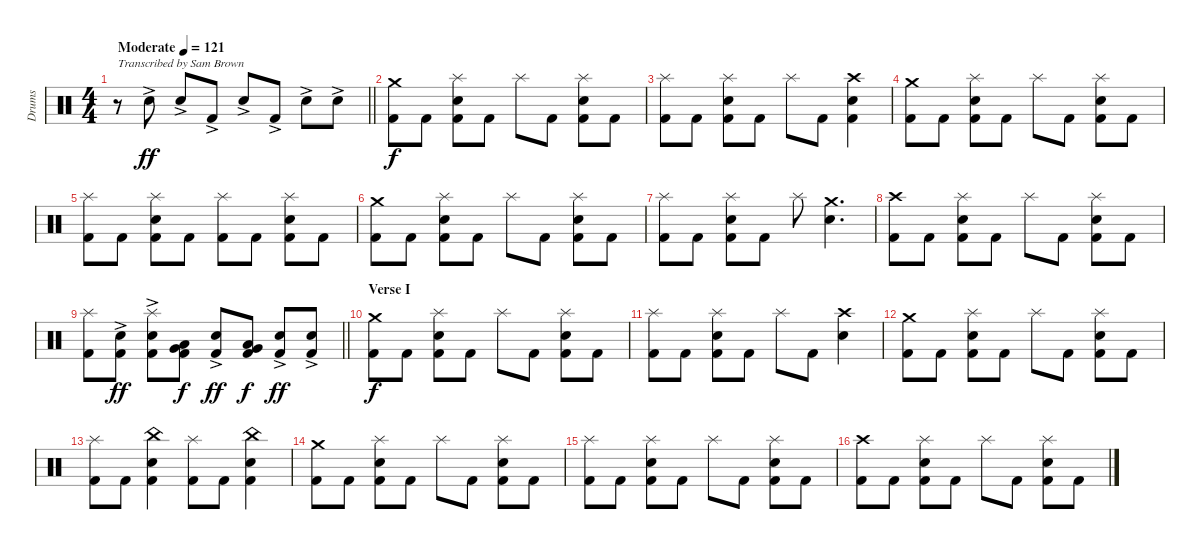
\track ("Drums" "Drums") {instrument percussion}
\staff {score}
\articulation defaults
\ts (4 4)
\tempo (121 "Moderate")
\clef neutral
\barLineRight lightlight
\ks c
r.8{txt "Transcribed by Sam Brown" dy ff} "Snare (hit) 2"{ac}.8 "Snare (hit) 2"{ac}.8 "Kick (hit) 2"{ac}.8 "Snare (hit) 2"{ac}.8 "Kick (hit) 2"{ac}.8 "Snare (hit) 2"{ac}.8 "Snare (hit) 2"{ac}.8 |
\section ("" "")
("Kick (hit) 2" "Crash medium (hit)").8{dy f} "Kick (hit) 2".8 ("Kick (hit) 2" "Snare (hit) 2" "Splash (hit)").8 "Kick (hit) 2".8 "Splash (hit)".8 "Kick (hit) 2".8 ("Kick (hit) 2" "Snare (hit) 2" "Splash (hit)").8 "Kick (hit) 2".8 |
("Kick (hit) 2" "Splash (hit)").8 "Kick (hit) 2".8 ("Kick (hit) 2" "Snare (hit) 2" "Splash (hit)").8 "Kick (hit) 2".8 "Splash (hit)".8 "Kick (hit) 2".8 ("Kick (hit) 2" "Snare (hit) 2" "Crash high (hit)").4 |
("Kick (hit) 2" "Crash medium (hit)").8 "Kick (hit) 2".8 ("Kick (hit) 2" "Snare (hit) 2" "Splash (hit)").8 "Kick (hit) 2".8 "Splash (hit)".8 "Kick (hit) 2".8 ("Kick (hit) 2" "Snare (hit) 2" "Splash (hit)").8 "Kick (hit) 2".8 |
("Kick (hit) 2" "Splash (hit)").8 "Kick (hit) 2".8 ("Kick (hit) 2" "Snare (hit) 2" "Splash (hit)").8 "Kick (hit) 2".8 ("Kick (hit) 2" "Splash (hit)").8 "Kick (hit) 2".8 ("Kick (hit) 2" "Snare (hit) 2" "Splash (hit)").8 "Kick (hit) 2".8 |
("Kick (hit) 2" "Crash medium (hit)").8 "Kick (hit) 2".8 ("Kick (hit) 2" "Snare (hit) 2" "Splash (hit)").8 "Kick (hit) 2".8 "Splash (hit)".8 "Kick (hit) 2".8 ("Kick (hit) 2" "Snare (hit) 2" "Splash (hit)").8 "Kick (hit) 2".8 |
("Kick (hit) 2" "Splash (hit)").8 "Kick (hit) 2".8 ("Kick (hit) 2" "Snare (hit) 2" "Splash (hit)").8 "Kick (hit) 2".8 "Splash (hit)".8 ("Snare (hit) 2" "Crash medium (hit)").4{d} |
("Kick (hit) 2" "Crash high (hit)").8 "Kick (hit) 2".8 ("Kick (hit) 2" "Snare (hit) 2" "Splash (hit)").8 "Kick (hit) 2".8 "Splash (hit)".8 "Kick (hit) 2".8 ("Kick (hit) 2" "Snare (hit) 2" "Splash (hit)").8 "Kick (hit) 2".8 |
\barLineRight lightlight
("Kick (hit) 2" "Splash (hit)").8 ("Kick (hit) 2" "Snare (hit) 2"{ac}).8{dy ff} ("Kick (hit) 2" "Snare (hit) 2"{ac} "Splash (hit)").8 ("Kick (hit) 2" "Low Tom (hit)" "Very Low Tom (hit)").8{dy f} ("Kick (hit) 2" "Snare (hit) 2"{ac}).8{dy ff} ("Kick (hit) 2" "Very Low Tom (hit)" "Low Floor Tom (hit)").8{dy f} ("Kick (hit) 2" "Snare (hit) 2"{ac}).8{dy ff} ("Kick (hit) 2" "Snare (hit) 2"{ac}).8 |
\section ("" "Verse I")
("Kick (hit) 2" "Crash medium (hit)").8{dy f} "Kick (hit) 2".8 ("Kick (hit) 2" "Snare (hit) 2" "Splash (hit)").8 "Kick (hit) 2".8 "Splash (hit)".8 "Kick (hit) 2".8 ("Kick (hit) 2" "Snare (hit) 2" "Splash (hit)").8 "Kick (hit) 2".8 |
("Kick (hit) 2" "Splash (hit)").8 "Kick (hit) 2".8 ("Kick (hit) 2" "Snare (hit) 2" "Splash (hit)").8 "Kick (hit) 2".8 "Splash (hit)".8 "Kick (hit) 2".8 ("Snare (hit) 2" "Crash high (hit)").4 |
("Kick (hit) 2" "Crash medium (hit)").8 "Kick (hit) 2".8 ("Kick (hit) 2" "Snare (hit) 2" "Splash (hit)").8 "Kick (hit) 2".8 "Splash (hit)".8 "Kick (hit) 2".8 ("Kick (hit) 2" "Snare (hit) 2" "Splash (hit)").8 "Kick (hit) 2".8 |
("Kick (hit) 2" "Splash (hit)").8 "Kick (hit) 2".8 ("Kick (hit) 2" "Snare (hit) 2" "China (hit)").4 ("Kick (hit) 2" "Splash (hit)").8 "Kick (hit) 2".8 ("Kick (hit) 2" "Snare (hit) 2" "China (hit)").4 |
("Kick (hit) 2" "Crash medium (hit)").8 "Kick (hit) 2".8 ("Kick (hit) 2" "Snare (hit) 2" "Splash (hit)").8 "Kick (hit) 2".8 "Splash (hit)".8 "Kick (hit) 2".8 ("Kick (hit) 2" "Snare (hit) 2" "Splash (hit)").8 "Kick (hit) 2".8 |
("Kick (hit) 2" "Splash (hit)").8 "Kick (hit) 2".8 ("Kick (hit) 2" "Snare (hit) 2" "Splash (hit)").8 "Kick (hit) 2".8 "Splash (hit)".8 "Kick (hit) 2".8 ("Kick (hit) 2" "Snare (hit) 2" "Splash (hit)").8 "Kick (hit) 2".8 |
("Kick (hit) 2" "Crash high (hit)").8 "Kick (hit) 2".8 ("Kick (hit) 2" "Snare (hit) 2" "Splash (hit)").8 "Kick (hit) 2".8 "Splash (hit)".8 "Kick (hit) 2".8 ("Kick (hit) 2" "Snare (hit) 2" "Splash (hit)").8 "Kick (hit) 2".8
